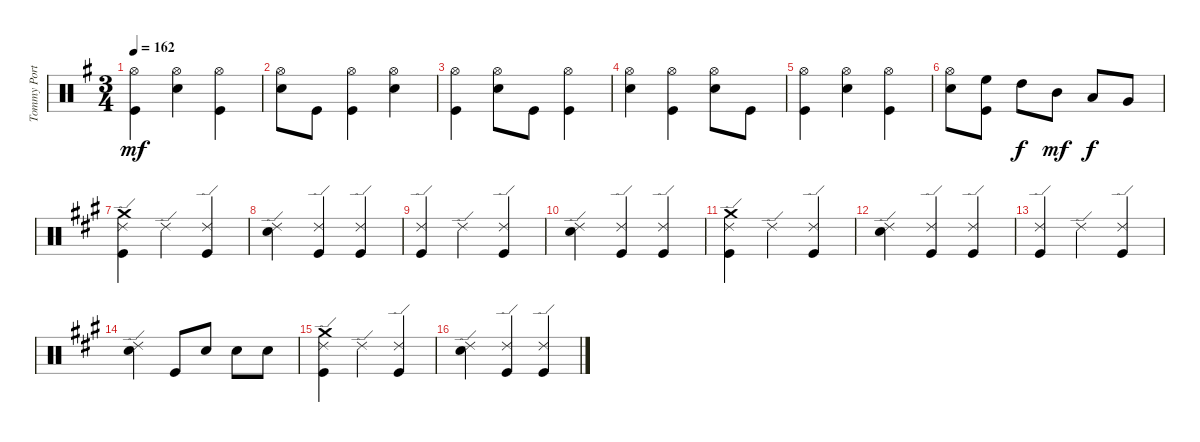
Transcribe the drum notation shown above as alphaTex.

\track ("Tommy Portimo (Drums)" "Tommy Port") {instrument percussion}
\staff {score}
\articulation defaults
\ts (3 4)
\tempo 162
\clef neutral
\ks g
("Kick (hit)" "Hi-Hat (open)").4{dy mf} ("Electric Snare (hit)" "Hi-Hat (open)").4 ("Kick (hit)" "Hi-Hat (open)").4 |
("Electric Snare (hit)" "Hi-Hat (open)").8 "Kick (hit)".8 ("Kick (hit)" "Hi-Hat (open)").4 ("Electric Snare (hit)" "Hi-Hat (open)").4 |
("Kick (hit)" "Hi-Hat (open)").4 ("Electric Snare (hit)" "Hi-Hat (open)").8 "Kick (hit)".8 ("Kick (hit)" "Hi-Hat (open)").4 |
("Electric Snare (hit)" "Hi-Hat (open)").4 ("Kick (hit)" "Hi-Hat (open)").4 ("Electric Snare (hit)" "Hi-Hat (open)").8 "Kick (hit)".8 |
("Kick (hit)" "Hi-Hat (open)").4 ("Electric Snare (hit)" "Hi-Hat (open)").4 ("Kick (hit)" "Hi-Hat (open)").4 |
("Electric Snare (hit)" "Hi-Hat (open)").8 ("High Floor Tom (hit)" "Kick (hit)").8 "High Tom (hit)".8{dy f} "Mid Tom (hit)".8{dy mf} "Low Tom (hit)".8{dy f} "Very Low Tom (hit)".8 |
\ks a
("Kick (hit)" "Ride (edge) 2" "Crash medium (hit)").4 "Ride (edge) 2".4 ("Kick (hit)" "Ride (edge) 2").4 |
("Electric Snare (hit)" "Ride (edge) 2").4 ("Kick (hit)" "Ride (edge) 2").4 ("Kick (hit)" "Ride (edge) 2").4 |
("Kick (hit)" "Ride (edge) 2").4 "Ride (edge) 2".4 ("Kick (hit)" "Ride (edge) 2").4 |
("Electric Snare (hit)" "Ride (edge) 2").4 ("Kick (hit)" "Ride (edge) 2").4 ("Kick (hit)" "Ride (edge) 2").4 |
("Kick (hit)" "Ride (edge) 2" "Crash medium (hit)").4 "Ride (edge) 2".4 ("Kick (hit)" "Ride (edge) 2").4 |
("Electric Snare (hit)" "Ride (edge) 2").4 ("Kick (hit)" "Ride (edge) 2").4 ("Kick (hit)" "Ride (edge) 2").4 |
("Kick (hit)" "Ride (edge) 2").4 "Ride (edge) 2".4 ("Kick (hit)" "Ride (edge) 2").4 |
("Electric Snare (hit)" "Ride (edge) 2").4 "Kick (hit)".8 "Electric Snare (hit)".8 "Electric Snare (hit)".8 "Electric Snare (hit)".8 |
("Kick (hit)" "Ride (edge) 2" "Crash medium (hit)").4 "Ride (edge) 2".4 ("Kick (hit)" "Ride (edge) 2").4 |
("Electric Snare (hit)" "Ride (edge) 2").4 ("Kick (hit)" "Ride (edge) 2").4 ("Kick (hit)" "Ride (edge) 2").4
